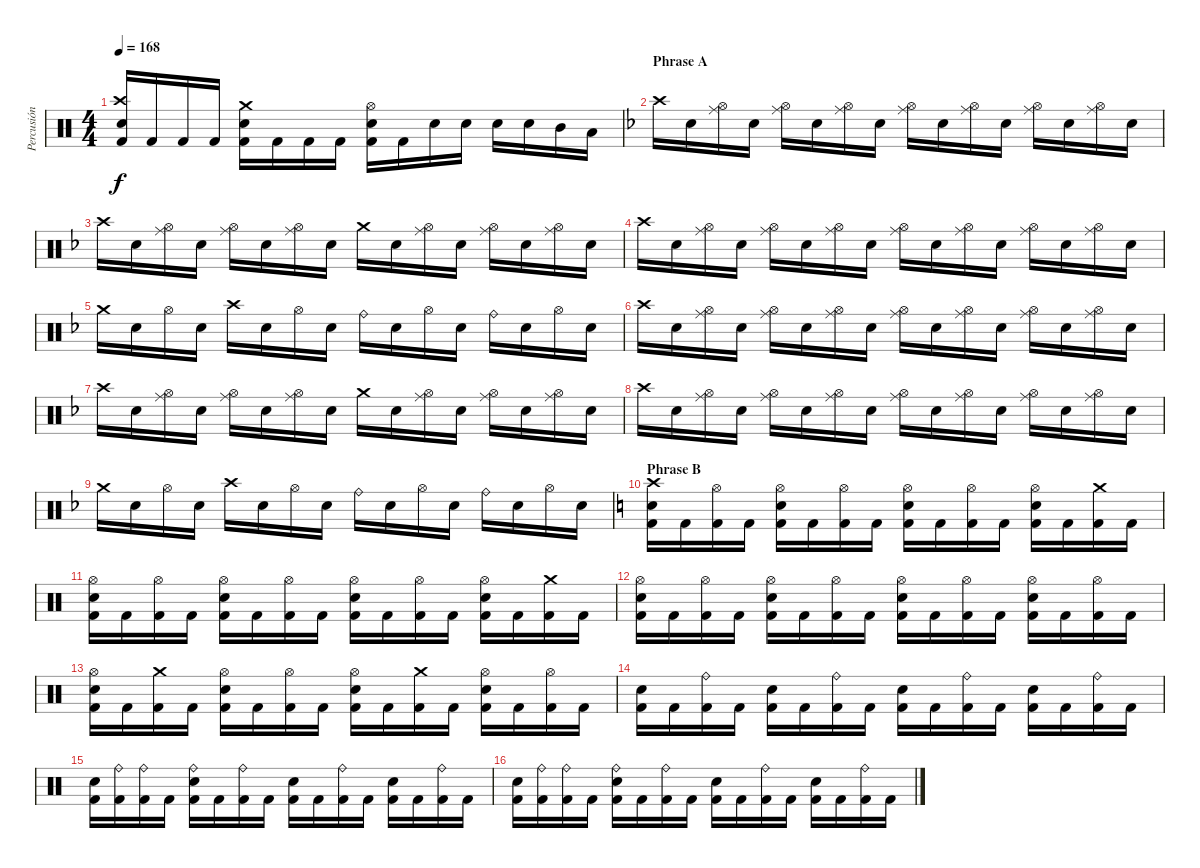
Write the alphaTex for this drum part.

\track ("Percusión" "Percusión") {instrument percussion}
\staff {score}
\articulation defaults
\ts (4 4)
\tempo 168
\clef neutral
\ks c
("Electric Snare (hit)" "Crash high (hit)" "Kick (hit) 2").16{dy f} "Kick (hit) 2".16 "Kick (hit) 2".16 "Kick (hit) 2".16 ("Electric Snare (hit)" "Crash medium (hit)" "Kick (hit) 2").16 "Kick (hit) 2".16 "Kick (hit) 2".16 "Kick (hit) 2".16 ("Electric Snare (hit)" "Hi-Hat (open)" "Kick (hit) 2").16 "Kick (hit) 2".16 "Electric Snare (hit)".16 "Electric Snare (hit)".16 "Electric Snare (hit)".16 "Electric Snare (hit)".16 "Mid Tom (hit)".16 "Low Tom (hit)".16 |
\section ("" "Phrase A")
\ks f "Crash high (hit)".16 "Electric Snare (hit)".16
("Ride (middle)" "Hi-Hat (open)").16 "Electric Snare (hit)".16 ("Ride (middle)" "Hi-Hat (open)").16 "Electric Snare (hit)".16 ("Ride (middle)" "Hi-Hat (open)").16 "Electric Snare (hit)".16 ("Ride (middle)" "Hi-Hat (open)").16 "Electric Snare (hit)".16 ("Ride (middle)" "Hi-Hat (open)").16 "Electric Snare (hit)".16 ("Ride (middle)" "Hi-Hat (open)").16 "Electric Snare (hit)".16 ("Ride (middle)" "Hi-Hat (open)").16 "Electric Snare (hit)".16 |
"Crash high (hit)".16 "Electric Snare (hit)".16 ("Ride (middle)" "Hi-Hat (open)").16 "Electric Snare (hit)".16 ("Ride (middle)" "Hi-Hat (open)").16 "Electric Snare (hit)".16 ("Ride (middle)" "Hi-Hat (open)").16 "Electric Snare (hit)".16 "Crash medium (hit)".16 "Electric Snare (hit)".16 ("Ride (middle)" "Hi-Hat (open)").16 "Electric Snare (hit)".16 ("Ride (middle)" "Hi-Hat (open)").16 "Electric Snare (hit)".16 ("Ride (middle)" "Hi-Hat (open)").16 "Electric Snare (hit)".16 |
"Crash high (hit)".16 "Electric Snare (hit)".16 ("Ride (middle)" "Hi-Hat (open)").16 "Electric Snare (hit)".16 ("Ride (middle)" "Hi-Hat (open)").16 "Electric Snare (hit)".16 ("Ride (middle)" "Hi-Hat (open)").16 "Electric Snare (hit)".16 ("Ride (middle)" "Hi-Hat (open)").16 "Electric Snare (hit)".16 ("Ride (middle)" "Hi-Hat (open)").16 "Electric Snare (hit)".16 ("Ride (middle)" "Hi-Hat (open)").16 "Electric Snare (hit)".16 ("Ride (middle)" "Hi-Hat (open)").16 "Electric Snare (hit)".16 |
"Crash medium (hit)".16 "Electric Snare (hit)".16 "Hi-Hat (open)".16 "Electric Snare (hit)".16 "Crash high (hit)".16 "Electric Snare (hit)".16 "Hi-Hat (open)".16 "Electric Snare (hit)".16 "Ride (bell)".16 "Electric Snare (hit)".16 "Hi-Hat (open)".16 "Electric Snare (hit)".16 "Ride (bell)".16 "Electric Snare (hit)".16 "Hi-Hat (open)".16 "Electric Snare (hit)".16 |
"Crash high (hit)".16 "Electric Snare (hit)".16 ("Ride (middle)" "Hi-Hat (open)").16 "Electric Snare (hit)".16 ("Ride (middle)" "Hi-Hat (open)").16 "Electric Snare (hit)".16 ("Ride (middle)" "Hi-Hat (open)").16 "Electric Snare (hit)".16 ("Ride (middle)" "Hi-Hat (open)").16 "Electric Snare (hit)".16 ("Ride (middle)" "Hi-Hat (open)").16 "Electric Snare (hit)".16 ("Ride (middle)" "Hi-Hat (open)").16 "Electric Snare (hit)".16 ("Ride (middle)" "Hi-Hat (open)").16 "Electric Snare (hit)".16 |
"Crash high (hit)".16 "Electric Snare (hit)".16 ("Ride (middle)" "Hi-Hat (open)").16 "Electric Snare (hit)".16 ("Ride (middle)" "Hi-Hat (open)").16 "Electric Snare (hit)".16 ("Ride (middle)" "Hi-Hat (open)").16 "Electric Snare (hit)".16 "Crash medium (hit)".16 "Electric Snare (hit)".16 ("Ride (middle)" "Hi-Hat (open)").16 "Electric Snare (hit)".16 ("Ride (middle)" "Hi-Hat (open)").16 "Electric Snare (hit)".16 ("Ride (middle)" "Hi-Hat (open)").16 "Electric Snare (hit)".16 |
"Crash high (hit)".16 "Electric Snare (hit)".16 ("Ride (middle)" "Hi-Hat (open)").16 "Electric Snare (hit)".16 ("Ride (middle)" "Hi-Hat (open)").16 "Electric Snare (hit)".16 ("Ride (middle)" "Hi-Hat (open)").16 "Electric Snare (hit)".16 ("Ride (middle)" "Hi-Hat (open)").16 "Electric Snare (hit)".16 ("Ride (middle)" "Hi-Hat (open)").16 "Electric Snare (hit)".16 ("Ride (middle)" "Hi-Hat (open)").16 "Electric Snare (hit)".16 ("Ride (middle)" "Hi-Hat (open)").16 "Electric Snare (hit)".16 |
"Crash medium (hit)".16 "Electric Snare (hit)".16 "Hi-Hat (open)".16 "Electric Snare (hit)".16 "Crash high (hit)".16 "Electric Snare (hit)".16 "Hi-Hat (open)".16 "Electric Snare (hit)".16 "Ride (bell)".16 "Electric Snare (hit)".16 "Hi-Hat (open)".16 "Electric Snare (hit)".16 "Ride (bell)".16 "Electric Snare (hit)".16 "Hi-Hat (open)".16 "Electric Snare (hit)".16 |
\section ("" "Phrase B")
\ks c
("Electric Snare (hit)" "Crash high (hit)" "Kick (hit) 2").16 "Kick (hit) 2".16 ("Hi-Hat (open)" "Kick (hit) 2").16 "Kick (hit) 2".16 ("Electric Snare (hit)" "Hi-Hat (open)" "Kick (hit) 2").16 "Kick (hit) 2".16 ("Hi-Hat (open)" "Kick (hit) 2").16 "Kick (hit) 2".16 ("Electric Snare (hit)" "Hi-Hat (open)" "Kick (hit) 2").16 "Kick (hit) 2".16 ("Hi-Hat (open)" "Kick (hit) 2").16 "Kick (hit) 2".16 ("Electric Snare (hit)" "Hi-Hat (open)" "Kick (hit) 2").16 "Kick (hit) 2".16 ("Crash medium (hit)" "Kick (hit) 2").16 "Kick (hit) 2".16 |
("Electric Snare (hit)" "Hi-Hat (open)" "Kick (hit) 2").16 "Kick (hit) 2".16 ("Hi-Hat (open)" "Kick (hit) 2").16 "Kick (hit) 2".16 ("Electric Snare (hit)" "Hi-Hat (open)" "Kick (hit) 2").16 "Kick (hit) 2".16 ("Hi-Hat (open)" "Kick (hit) 2").16 "Kick (hit) 2".16 ("Electric Snare (hit)" "Hi-Hat (open)" "Kick (hit) 2").16 "Kick (hit) 2".16 ("Hi-Hat (open)" "Kick (hit) 2").16 "Kick (hit) 2".16 ("Electric Snare (hit)" "Hi-Hat (open)" "Kick (hit) 2").16 "Kick (hit) 2".16 ("Crash medium (hit)" "Kick (hit) 2").16 "Kick (hit) 2".16 |
("Electric Snare (hit)" "Hi-Hat (open)" "Kick (hit) 2").16 "Kick (hit) 2".16 ("Hi-Hat (open)" "Kick (hit) 2").16 "Kick (hit) 2".16 ("Electric Snare (hit)" "Hi-Hat (open)" "Kick (hit) 2").16 "Kick (hit) 2".16 ("Hi-Hat (open)" "Kick (hit) 2").16 "Kick (hit) 2".16 ("Electric Snare (hit)" "Hi-Hat (open)" "Kick (hit) 2").16 "Kick (hit) 2".16 ("Hi-Hat (open)" "Kick (hit) 2").16 "Kick (hit) 2".16 ("Electric Snare (hit)" "Hi-Hat (open)" "Kick (hit) 2").16 "Kick (hit) 2".16 ("Hi-Hat (open)" "Kick (hit) 2").16 "Kick (hit) 2".16 |
("Electric Snare (hit)" "Hi-Hat (open)" "Kick (hit) 2").16 "Kick (hit) 2".16 ("Crash medium (hit)" "Kick (hit) 2").16 "Kick (hit) 2".16 ("Electric Snare (hit)" "Hi-Hat (open)" "Kick (hit) 2").16 "Kick (hit) 2".16 ("Hi-Hat (open)" "Kick (hit) 2").16 "Kick (hit) 2".16 ("Electric Snare (hit)" "Hi-Hat (open)" "Kick (hit) 2").16 "Kick (hit) 2".16 ("Crash medium (hit)" "Kick (hit) 2").16 "Kick (hit) 2".16 ("Electric Snare (hit)" "Hi-Hat (open)" "Kick (hit) 2").16 "Kick (hit) 2".16 ("Hi-Hat (open)" "Kick (hit) 2").16 "Kick (hit) 2".16 |
("Electric Snare (hit)" "Kick (hit) 2").16 "Kick (hit) 2".16 ("Ride (bell)" "Kick (hit) 2").16 "Kick (hit) 2".16 ("Electric Snare (hit)" "Kick (hit) 2").16 "Kick (hit) 2".16 ("Ride (bell)" "Kick (hit) 2").16 "Kick (hit) 2".16 ("Electric Snare (hit)" "Kick (hit) 2").16 "Kick (hit) 2".16 ("Ride (bell)" "Kick (hit) 2").16 "Kick (hit) 2".16 ("Electric Snare (hit)" "Kick (hit) 2").16 "Kick (hit) 2".16 ("Ride (bell)" "Kick (hit) 2").16 "Kick (hit) 2".16 |
("Electric Snare (hit)" "Kick (hit) 2").16 ("Ride (bell)" "Kick (hit) 2").16 ("Ride (bell)" "Kick (hit) 2").16 "Kick (hit) 2".16 ("Electric Snare (hit)" "Ride (bell)" "Kick (hit) 2").16 "Kick (hit) 2".16 ("Ride (bell)" "Kick (hit) 2").16 "Kick (hit) 2".16 ("Electric Snare (hit)" "Kick (hit) 2").16 "Kick (hit) 2".16 ("Ride (bell)" "Kick (hit) 2").16 "Kick (hit) 2".16 ("Electric Snare (hit)" "Kick (hit) 2").16 "Kick (hit) 2".16 ("Ride (bell)" "Kick (hit) 2").16 "Kick (hit) 2".16 |
("Electric Snare (hit)" "Kick (hit) 2").16 ("Ride (bell)" "Kick (hit) 2").16 ("Ride (bell)" "Kick (hit) 2").16 "Kick (hit) 2".16 ("Electric Snare (hit)" "Ride (bell)" "Kick (hit) 2").16 "Kick (hit) 2".16 ("Ride (bell)" "Kick (hit) 2").16 "Kick (hit) 2".16 ("Electric Snare (hit)" "Kick (hit) 2").16 "Kick (hit) 2".16 ("Ride (bell)" "Kick (hit) 2").16 "Kick (hit) 2".16 ("Electric Snare (hit)" "Kick (hit) 2").16 "Kick (hit) 2".16 ("Ride (bell)" "Kick (hit) 2").16 "Kick (hit) 2".16
